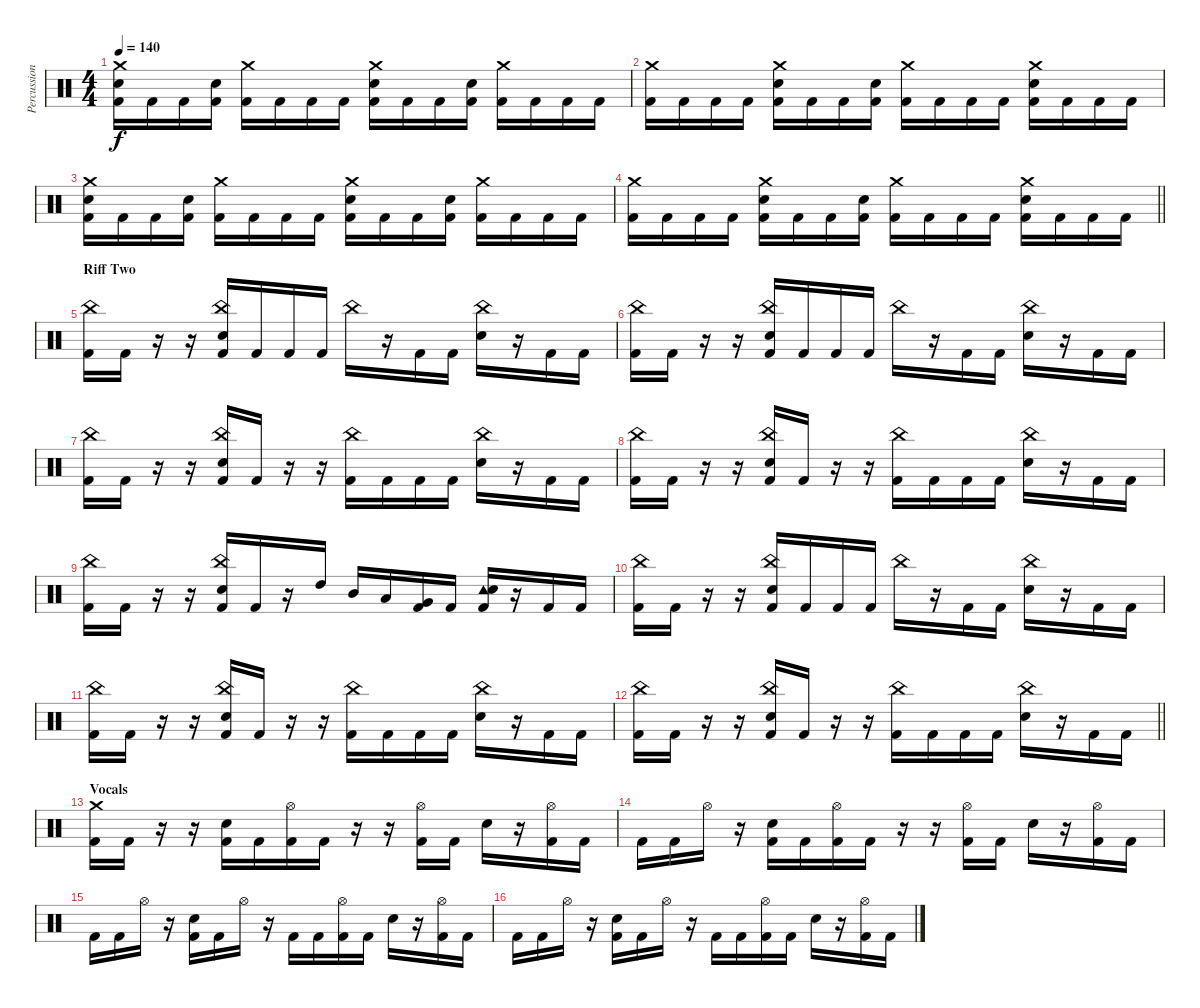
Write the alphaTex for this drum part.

\track ("Percussion" "Percussion") {instrument percussion}
\staff {score}
\articulation defaults
\ts (4 4)
\tempo 140
\clef neutral
\ks c
("Crash medium (hit)" "Snare (hit) 2" "Kick (hit) 2").16{dy f} "Kick (hit) 2".16 "Kick (hit) 2".16 ("Snare (hit) 2" "Kick (hit) 2").16 ("Crash medium (hit)" "Kick (hit) 2").16 "Kick (hit) 2".16 "Kick (hit) 2".16 "Kick (hit) 2".16 ("Crash medium (hit)" "Snare (hit) 2" "Kick (hit) 2").16 "Kick (hit) 2".16 "Kick (hit) 2".16 ("Snare (hit) 2" "Kick (hit) 2").16 ("Crash medium (hit)" "Kick (hit) 2").16 "Kick (hit) 2".16 "Kick (hit) 2".16 "Kick (hit) 2".16 |
("Crash medium (hit)" "Kick (hit) 2").16 "Kick (hit) 2".16 "Kick (hit) 2".16 "Kick (hit) 2".16 ("Crash medium (hit)" "Snare (hit) 2" "Kick (hit) 2").16 "Kick (hit) 2".16 "Kick (hit) 2".16 ("Snare (hit) 2" "Kick (hit) 2").16 ("Crash medium (hit)" "Kick (hit) 2").16 "Kick (hit) 2".16 "Kick (hit) 2".16 "Kick (hit) 2".16 ("Crash medium (hit)" "Snare (hit) 2" "Kick (hit) 2").16 "Kick (hit) 2".16 "Kick (hit) 2".16 "Kick (hit) 2".16 |
("Crash medium (hit)" "Snare (hit) 2" "Kick (hit) 2").16 "Kick (hit) 2".16 "Kick (hit) 2".16 ("Snare (hit) 2" "Kick (hit) 2").16 ("Crash medium (hit)" "Kick (hit) 2").16 "Kick (hit) 2".16 "Kick (hit) 2".16 "Kick (hit) 2".16 ("Crash medium (hit)" "Snare (hit) 2" "Kick (hit) 2").16 "Kick (hit) 2".16 "Kick (hit) 2".16 ("Snare (hit) 2" "Kick (hit) 2").16 ("Crash medium (hit)" "Kick (hit) 2").16 "Kick (hit) 2".16 "Kick (hit) 2".16 "Kick (hit) 2".16 |
\barLineRight lightlight
("Crash medium (hit)" "Kick (hit) 2").16 "Kick (hit) 2".16 "Kick (hit) 2".16 "Kick (hit) 2".16 ("Crash medium (hit)" "Snare (hit) 2" "Kick (hit) 2").16 "Kick (hit) 2".16 "Kick (hit) 2".16 ("Snare (hit) 2" "Kick (hit) 2").16 ("Crash medium (hit)" "Kick (hit) 2").16 "Kick (hit) 2".16 "Kick (hit) 2".16 "Kick (hit) 2".16 ("Crash medium (hit)" "Snare (hit) 2" "Kick (hit) 2").16 "Kick (hit) 2".16 "Kick (hit) 2".16 "Kick (hit) 2".16 |
\section ("" "Riff Two")
("China (hit)" "Kick (hit) 2").16 "Kick (hit) 2".16 r.16 r.16 ("China (hit)" "Electric Snare (hit)" "Kick (hit) 2").16 "Kick (hit) 2".16 "Kick (hit) 2".16 "Kick (hit) 2".16 "China (hit)".16 r.16 "Kick (hit) 2".16 "Kick (hit) 2".16 ("China (hit)" "Electric Snare (hit)").16 r.16 "Kick (hit) 2".16 "Kick (hit) 2".16 |
("China (hit)" "Kick (hit) 2").16 "Kick (hit) 2".16 r.16 r.16 ("China (hit)" "Electric Snare (hit)" "Kick (hit) 2").16 "Kick (hit) 2".16 "Kick (hit) 2".16 "Kick (hit) 2".16 "China (hit)".16 r.16 "Kick (hit) 2".16 "Kick (hit) 2".16 ("China (hit)" "Electric Snare (hit)").16 r.16 "Kick (hit) 2".16 "Kick (hit) 2".16 |
("China (hit)" "Kick (hit) 2").16 "Kick (hit) 2".16 r.16 r.16 ("China (hit)" "Electric Snare (hit)" "Kick (hit) 2").16 "Kick (hit) 2".16 r.16 r.16 ("China (hit)" "Kick (hit) 2").16 "Kick (hit) 2".16 "Kick (hit) 2".16 "Kick (hit) 2".16 ("China (hit)" "Electric Snare (hit)").16 r.16 "Kick (hit) 2".16 "Kick (hit) 2".16 |
("China (hit)" "Kick (hit) 2").16 "Kick (hit) 2".16 r.16 r.16 ("China (hit)" "Electric Snare (hit)" "Kick (hit) 2").16 "Kick (hit) 2".16 r.16 r.16 ("China (hit)" "Kick (hit) 2").16 "Kick (hit) 2".16 "Kick (hit) 2".16 "Kick (hit) 2".16 ("China (hit)" "Electric Snare (hit)").16 r.16 "Kick (hit) 2".16 "Kick (hit) 2".16 |
("China (hit)" "Kick (hit) 2").16 "Kick (hit) 2".16 r.16 r.16 ("China (hit)" "Electric Snare (hit)" "Kick (hit) 2").16 "Kick (hit) 2".16 r.16 "High Tom (hit)".16 "Mid Tom (hit)".16 "Low Tom (hit)".16 ("Very Low Tom (hit)" "Kick (hit) 2").16 "Kick (hit) 2".16 ("Tambourine (hit)" "Electric Snare (hit)" "Kick (hit) 2").16 r.16 "Kick (hit) 2".16 "Kick (hit) 2".16 |
("China (hit)" "Kick (hit) 2").16 "Kick (hit) 2".16 r.16 r.16 ("China (hit)" "Electric Snare (hit)" "Kick (hit) 2").16 "Kick (hit) 2".16 "Kick (hit) 2".16 "Kick (hit) 2".16 "China (hit)".16 r.16 "Kick (hit) 2".16 "Kick (hit) 2".16 ("China (hit)" "Electric Snare (hit)").16 r.16 "Kick (hit) 2".16 "Kick (hit) 2".16 |
("China (hit)" "Kick (hit) 2").16 "Kick (hit) 2".16 r.16 r.16 ("China (hit)" "Electric Snare (hit)" "Kick (hit) 2").16 "Kick (hit) 2".16 r.16 r.16 ("China (hit)" "Kick (hit) 2").16 "Kick (hit) 2".16 "Kick (hit) 2".16 "Kick (hit) 2".16 ("China (hit)" "Electric Snare (hit)").16 r.16 "Kick (hit) 2".16 "Kick (hit) 2".16 |
\barLineRight lightlight
("China (hit)" "Kick (hit) 2").16 "Kick (hit) 2".16 r.16 r.16 ("China (hit)" "Electric Snare (hit)" "Kick (hit) 2").16 "Kick (hit) 2".16 r.16 r.16 ("China (hit)" "Kick (hit) 2").16 "Kick (hit) 2".16 "Kick (hit) 2".16 "Kick (hit) 2".16 ("China (hit)" "Electric Snare (hit)").16 r.16 "Kick (hit) 2".16 "Kick (hit) 2".16 |
\section ("" "Vocals")
("Crash medium (hit)" "Kick (hit) 2").16 "Kick (hit) 2".16 r.16 r.16 ("Electric Snare (hit)" "Kick (hit) 2").16 "Kick (hit) 2".16 ("Hi-Hat (open)" "Kick (hit) 2").16 "Kick (hit) 2".16 r.16 r.16 ("Hi-Hat (open)" "Kick (hit) 2").16 "Kick (hit) 2".16 "Electric Snare (hit)".16 r.16 ("Hi-Hat (open)" "Kick (hit) 2").16 "Kick (hit) 2".16 |
"Kick (hit) 2".16 "Kick (hit) 2".16 "Hi-Hat (open)".16 r.16 ("Electric Snare (hit)" "Kick (hit) 2").16 "Kick (hit) 2".16 ("Hi-Hat (open)" "Kick (hit) 2").16 "Kick (hit) 2".16 r.16 r.16 ("Hi-Hat (open)" "Kick (hit) 2").16 "Kick (hit) 2".16 "Electric Snare (hit)".16 r.16 ("Hi-Hat (open)" "Kick (hit) 2").16 "Kick (hit) 2".16 |
"Kick (hit) 2".16 "Kick (hit) 2".16 "Hi-Hat (open)".16 r.16 ("Electric Snare (hit)" "Kick (hit) 2").16 "Kick (hit) 2".16 "Hi-Hat (open)".16 r.16 "Kick (hit) 2".16 "Kick (hit) 2".16 ("Hi-Hat (open)" "Kick (hit) 2").16 "Kick (hit) 2".16 "Electric Snare (hit)".16 r.16 ("Hi-Hat (open)" "Kick (hit) 2").16 "Kick (hit) 2".16 |
"Kick (hit) 2".16 "Kick (hit) 2".16 "Hi-Hat (open)".16 r.16 ("Electric Snare (hit)" "Kick (hit) 2").16 "Kick (hit) 2".16 "Hi-Hat (open)".16 r.16 "Kick (hit) 2".16 "Kick (hit) 2".16 ("Hi-Hat (open)" "Kick (hit) 2").16 "Kick (hit) 2".16 "Electric Snare (hit)".16 r.16 ("Hi-Hat (open)" "Kick (hit) 2").16 "Kick (hit) 2".16
